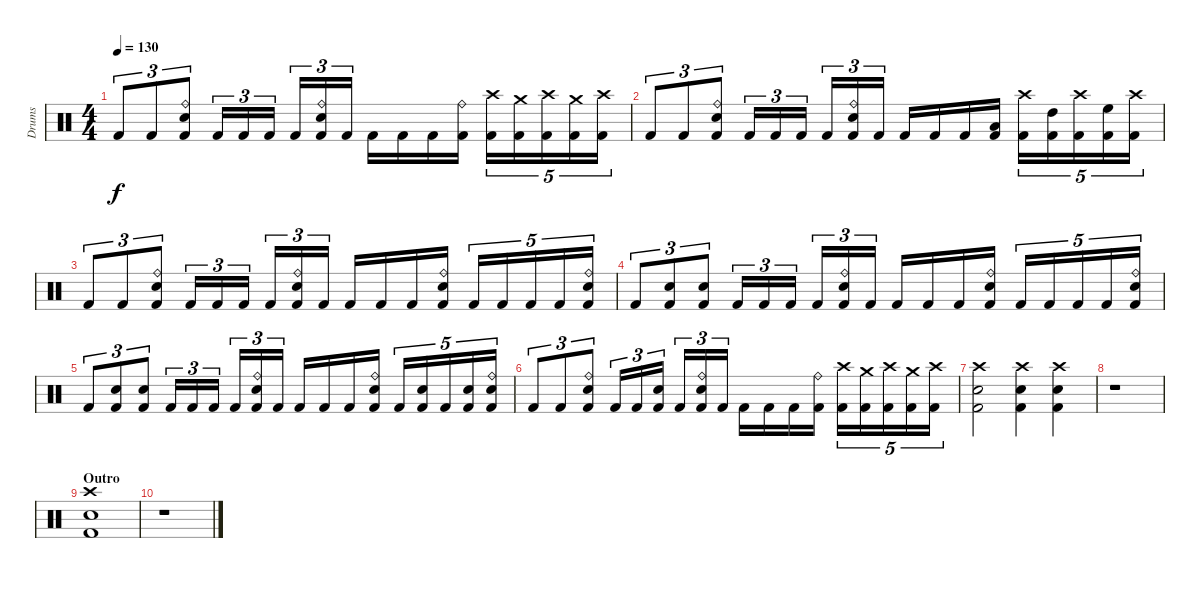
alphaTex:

\track ("Drums" "Drums") {instrument percussion}
\staff {score}
\articulation defaults
\ts (4 4)
\tempo 130
\clef neutral
\ks c "Kick (hit) 2".8{tu (3 2) dy f} "Kick (hit) 2".8{tu (3 2)}
("Ride (bell)" "Snare (hit) 2" "Kick (hit) 2").8{tu (3 2)} "Kick (hit) 2".16{tu (3 2)} "Kick (hit) 2".16{tu (3 2)} "Kick (hit) 2".16{tu (3 2)} "Kick (hit) 2".16{tu (3 2)} ("Ride (bell)" "Snare (hit) 2" "Kick (hit) 2").16{tu (3 2)} "Kick (hit) 2".16{tu (3 2)} "Kick (hit) 2".16 "Kick (hit) 2".16 "Kick (hit) 2".16 ("Ride (bell)" "Kick (hit) 2").16 ("Crash high (hit)" "Kick (hit) 2").16{tu (5 4)} ("Crash medium (hit)" "Kick (hit) 2").16{tu (5 4)} ("Crash high (hit)" "Kick (hit) 2").16{tu (5 4)} ("Crash medium (hit)" "Kick (hit) 2").16{tu (5 4)} ("Crash high (hit)" "Kick (hit) 2").16{tu (5 4)} |
"Kick (hit) 2".8{tu (3 2)} "Kick (hit) 2".8{tu (3 2)} ("Ride (bell)" "Snare (hit) 2" "Kick (hit) 2").8{tu (3 2)} "Kick (hit) 2".16{tu (3 2)} "Kick (hit) 2".16{tu (3 2)} "Kick (hit) 2".16{tu (3 2)} "Kick (hit) 2".16{tu (3 2)} ("Ride (bell)" "Snare (hit) 2" "Kick (hit) 2").16{tu (3 2)} "Kick (hit) 2".16{tu (3 2)} "Kick (hit) 2".16 "Kick (hit) 2".16 "Kick (hit) 2".16 ("Low Tom (hit)" "Kick (hit) 2").16 ("Crash high (hit)" "Kick (hit) 2").16{tu (5 4)} ("High Tom (hit)" "Kick (hit) 2").16{tu (5 4)} ("Crash high (hit)" "Kick (hit) 2").16{tu (5 4)} ("High Floor Tom (hit)" "Kick (hit) 2").16{tu (5 4)} ("Crash high (hit)" "Kick (hit) 2").16{tu (5 4)} |
"Kick (hit) 2".8{tu (3 2)} "Kick (hit) 2".8{tu (3 2)} ("Ride (bell)" "Snare (hit) 2" "Kick (hit) 2").8{tu (3 2)} "Kick (hit) 2".16{tu (3 2)} "Kick (hit) 2".16{tu (3 2)} "Kick (hit) 2".16{tu (3 2)} "Kick (hit) 2".16{tu (3 2)} ("Ride (bell)" "Snare (hit) 2" "Kick (hit) 2").16{tu (3 2)} "Kick (hit) 2".16{tu (3 2)} "Kick (hit) 2".16 "Kick (hit) 2".16 "Kick (hit) 2".16 ("Ride (bell)" "Snare (hit) 2" "Kick (hit) 2").16 "Kick (hit) 2".16{tu (5 4)} "Kick (hit) 2".16{tu (5 4)} "Kick (hit) 2".16{tu (5 4)} "Kick (hit) 2".16{tu (5 4)} ("Ride (bell)" "Snare (hit) 2" "Kick (hit) 2").16{tu (5 4)} |
"Kick (hit) 2".8{tu (3 2)} ("Snare (hit) 2" "Kick (hit) 2").8{tu (3 2)} ("Snare (hit) 2" "Kick (hit) 2").8{tu (3 2)} "Kick (hit) 2".16{tu (3 2)} "Kick (hit) 2".16{tu (3 2)} "Kick (hit) 2".16{tu (3 2)} "Kick (hit) 2".16{tu (3 2)} ("Ride (bell)" "Snare (hit) 2" "Kick (hit) 2").16{tu (3 2)} "Kick (hit) 2".16{tu (3 2)} "Kick (hit) 2".16 "Kick (hit) 2".16 "Kick (hit) 2".16 ("Ride (bell)" "Snare (hit) 2" "Kick (hit) 2").16 "Kick (hit) 2".16{tu (5 4)} "Kick (hit) 2".16{tu (5 4)} "Kick (hit) 2".16{tu (5 4)} "Kick (hit) 2".16{tu (5 4)} ("Ride (bell)" "Snare (hit) 2" "Kick (hit) 2").16{tu (5 4)} |
"Kick (hit) 2".8{tu (3 2)} ("Snare (hit) 2" "Kick (hit) 2").8{tu (3 2)} ("Snare (hit) 2" "Kick (hit) 2").8{tu (3 2)} "Kick (hit) 2".16{tu (3 2)} "Kick (hit) 2".16{tu (3 2)} "Kick (hit) 2".16{tu (3 2)} "Kick (hit) 2".16{tu (3 2)} ("Ride (bell)" "Snare (hit) 2" "Kick (hit) 2").16{tu (3 2)} "Kick (hit) 2".16{tu (3 2)} "Kick (hit) 2".16 "Kick (hit) 2".16 "Kick (hit) 2".16 ("Ride (bell)" "Snare (hit) 2" "Kick (hit) 2").16 "Kick (hit) 2".16{tu (5 4)} ("Snare (hit) 2" "Kick (hit) 2").16{tu (5 4)} "Kick (hit) 2".16{tu (5 4)} ("Snare (hit) 2" "Kick (hit) 2").16{tu (5 4)} ("Ride (bell)" "Snare (hit) 2" "Kick (hit) 2").16{tu (5 4)} |
"Kick (hit) 2".8{tu (3 2)} "Kick (hit) 2".8{tu (3 2)} ("Ride (bell)" "Snare (hit) 2" "Kick (hit) 2").8{tu (3 2)} "Kick (hit) 2".16{tu (3 2)} "Kick (hit) 2".16{tu (3 2)} ("Snare (hit) 2" "Kick (hit) 2").16{tu (3 2)} "Kick (hit) 2".16{tu (3 2)} ("Ride (bell)" "Snare (hit) 2" "Kick (hit) 2").16{tu (3 2)} "Kick (hit) 2".16{tu (3 2)} "Kick (hit) 2".16 "Kick (hit) 2".16 "Kick (hit) 2".16 ("Ride (bell)" "Kick (hit) 2").16 ("Crash high (hit)" "Kick (hit) 2").16{tu (5 4)} ("Crash medium (hit)" "Kick (hit) 2").16{tu (5 4)} ("Crash high (hit)" "Kick (hit) 2").16{tu (5 4)} ("Crash medium (hit)" "Kick (hit) 2").16{tu (5 4)} ("Crash high (hit)" "Kick (hit) 2").16{tu (5 4)} |
("Crash high (hit)" "Snare (hit) 2" "Kick (hit) 2").2 ("Crash high (hit)" "Snare (hit) 2" "Kick (hit) 2").4 ("Crash high (hit)" "Snare (hit) 2" "Kick (hit) 2").4 |
r.1 |
\section ("" "Outro")
("Crash high (hit)" "Snare (hit) 2" "Kick (hit) 2").1 |
r.1
